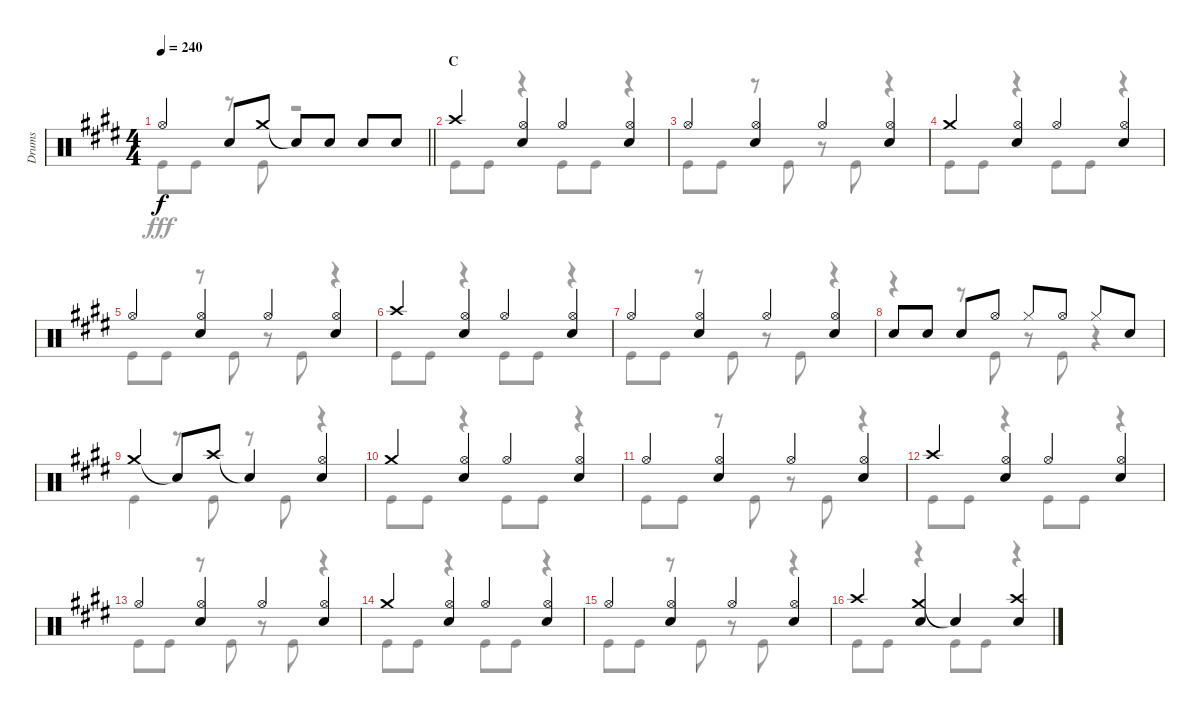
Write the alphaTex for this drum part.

\track ("Drums" "Drums") {instrument percussion}
\staff {score}
\articulation defaults
\voice
\ts (4 4)
\tempo 240
\clef neutral
\barLineRight lightlight
\ks e "Hi-Hat (open)".4{dy f} "Snare (hit) 2".8 "Crash medium (hit)".8 "Snare (hit)"{t}.8 "Snare (hit) 2".8 "Snare (hit) 2".8 "Snare (hit) 2".8
|
\section ("" "C")
"Crash high (hit)".4 ("Hi-Hat (open)" "Snare (hit) 2").4 "Hi-Hat (open)".4 ("Hi-Hat (open)" "Snare (hit) 2").4 |
"Hi-Hat (open)".4 ("Hi-Hat (open)" "Snare (hit) 2").4 "Hi-Hat (open)".4 ("Hi-Hat (open)" "Snare (hit) 2").4 |
"Crash medium (hit)".4 ("Hi-Hat (open)" "Snare (hit) 2").4 "Hi-Hat (open)".4 ("Hi-Hat (open)" "Snare (hit) 2").4 |
"Hi-Hat (open)".4 ("Hi-Hat (open)" "Snare (hit) 2").4 "Hi-Hat (open)".4 ("Hi-Hat (open)" "Snare (hit) 2").4 |
"Crash high (hit)".4 ("Hi-Hat (open)" "Snare (hit) 2").4 "Hi-Hat (open)".4 ("Hi-Hat (open)" "Snare (hit) 2").4 |
"Hi-Hat (open)".4 ("Hi-Hat (open)" "Snare (hit) 2").4 "Hi-Hat (open)".4 ("Hi-Hat (open)" "Snare (hit) 2").4 |
"Snare (hit) 2".8 "Snare (hit) 2".8 "Snare (hit) 2".8 "Hi-Hat (open)".8 "Hi-Hat (closed)".8 "Hi-Hat (open)".8 "Hi-Hat (closed)".8 "Snare (hit) 2".8 |
"Crash medium (hit)".4 "Snare (hit)"{t}.8 "Crash high (hit)".8 "Snare (hit)"{t}.4 ("Hi-Hat (open)" "Snare (hit) 2").4 |
"Crash medium (hit)".4 ("Hi-Hat (open)" "Snare (hit) 2").4 "Hi-Hat (open)".4 ("Hi-Hat (open)" "Snare (hit) 2").4 |
"Hi-Hat (open)".4 ("Hi-Hat (open)" "Snare (hit) 2").4 "Hi-Hat (open)".4 ("Hi-Hat (open)" "Snare (hit) 2").4 |
"Crash high (hit)".4 ("Hi-Hat (open)" "Snare (hit) 2").4 "Hi-Hat (open)".4 ("Hi-Hat (open)" "Snare (hit) 2").4 |
"Hi-Hat (open)".4 ("Hi-Hat (open)" "Snare (hit) 2").4 "Hi-Hat (open)".4 ("Hi-Hat (open)" "Snare (hit) 2").4 |
"Crash medium (hit)".4 ("Hi-Hat (open)" "Snare (hit) 2").4 "Hi-Hat (open)".4 ("Hi-Hat (open)" "Snare (hit) 2").4 |
"Hi-Hat (open)".4 ("Hi-Hat (open)" "Snare (hit) 2").4 "Hi-Hat (open)".4 ("Hi-Hat (open)" "Snare (hit) 2").4 |
"Crash high (hit)".4 ("Crash medium (hit)" "Snare (hit) 2").4 "Snare (hit)"{t}.4 ("Crash high (hit)" "Snare (hit) 2").4
\voice
\clef neutral
\ottava regular
\simile none
\barLineRight lightlight
\ks e "Kick (hit)".8{dy fff} "Kick (hit)".8
r.8 "Kick (hit)".8 r.2 |
"Kick (hit)".8 "Kick (hit)".8 r.4 "Kick (hit)".8 "Kick (hit)".8 r.4 |
"Kick (hit)".8 "Kick (hit)".8 r.8 "Kick (hit)".8 r.8 "Kick (hit)".8 r.4 |
"Kick (hit)".8 "Kick (hit)".8 r.4 "Kick (hit)".8 "Kick (hit)".8 r.4 |
"Kick (hit)".8 "Kick (hit)".8 r.8 "Kick (hit)".8 r.8 "Kick (hit)".8 r.4 |
"Kick (hit)".8 "Kick (hit)".8 r.4 "Kick (hit)".8 "Kick (hit)".8 r.4 |
"Kick (hit)".8 "Kick (hit)".8 r.8 "Kick (hit)".8 r.8 "Kick (hit)".8 r.4 |
r.4 r.8 "Kick (hit)".8 r.8 "Kick (hit)".8 r.4 |
"Kick (hit)".4 r.8 "Kick (hit)".8 r.8 "Kick (hit)".8 r.4 |
"Kick (hit)".8 "Kick (hit)".8 r.4 "Kick (hit)".8 "Kick (hit)".8 r.4 |
"Kick (hit)".8 "Kick (hit)".8 r.8 "Kick (hit)".8 r.8 "Kick (hit)".8 r.4 |
"Kick (hit)".8 "Kick (hit)".8 r.4 "Kick (hit)".8 "Kick (hit)".8 r.4 |
"Kick (hit)".8 "Kick (hit)".8 r.8 "Kick (hit)".8 r.8 "Kick (hit)".8 r.4 |
"Kick (hit)".8 "Kick (hit)".8 r.4 "Kick (hit)".8 "Kick (hit)".8 r.4 |
"Kick (hit)".8 "Kick (hit)".8 r.8 "Kick (hit)".8 r.8 "Kick (hit)".8 r.4 |
"Kick (hit)".8 "Kick (hit)".8 r.4 "Kick (hit)".8 "Kick (hit)".8 r.4
